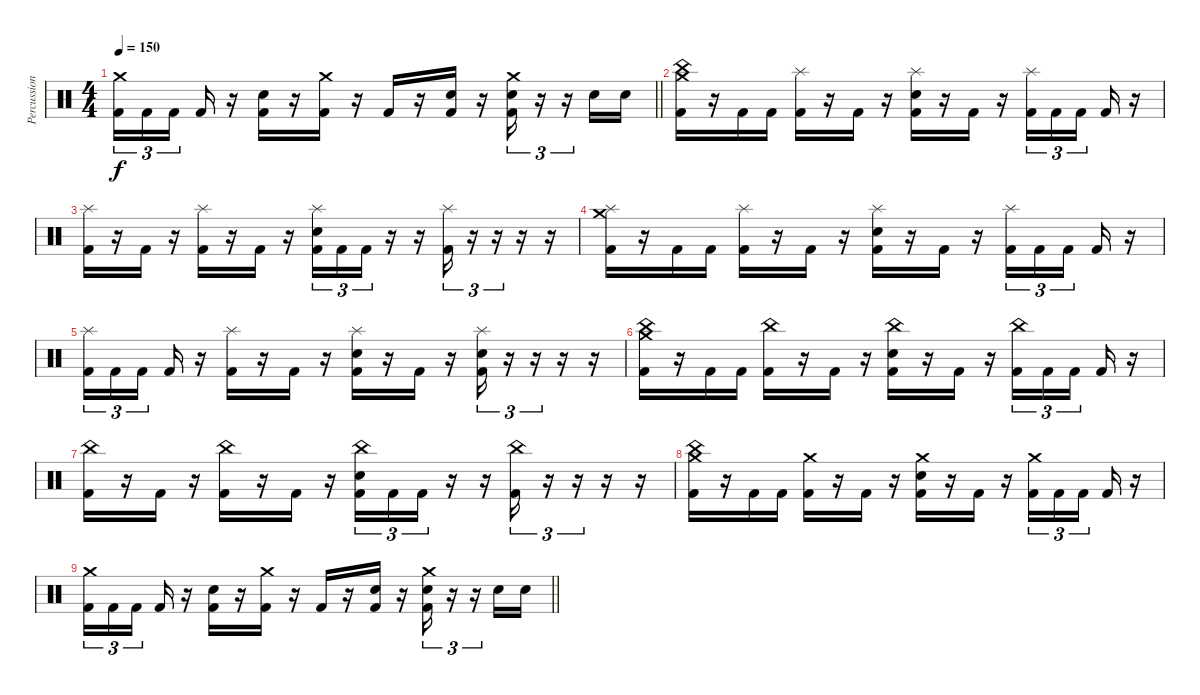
\track ("Percussion" "Percussion") {instrument percussion}
\staff {score}
\articulation defaults
\ts (4 4)
\tempo 150
\clef neutral
\barLineRight lightlight
\ks c
("Crash medium (hit)" "Kick (hit) 2").16{tu (3 2) dy f} "Kick (hit) 2".16{tu (3 2)} "Kick (hit) 2".16{tu (3 2) beam splitsecondary} "Kick (hit) 2".16 r.16 ("Electric Snare (hit)" "Kick (hit) 2").16 r.16 ("Crash medium (hit)" "Kick (hit) 2").16 r.16 "Kick (hit) 2".16 r.16 ("Electric Snare (hit)" "Kick (hit) 2").16 r.16 ("Crash medium (hit)" "Electric Snare (hit)" "Kick (hit) 2").16{tu (3 2)} r.16{tu (3 2)} r.16{tu (3 2)} "Electric Snare (hit)".16 "Electric Snare (hit)".16 |
("China (hit)" "Crash medium (hit)" "Kick (hit) 2").16 r.16 "Kick (hit) 2".16 "Kick (hit) 2".16 ("Splash (hit)" "Kick (hit) 2").16 r.16 "Kick (hit) 2".16 r.16 ("Splash (hit)" "Electric Snare (hit)" "Kick (hit) 2").16 r.16 "Kick (hit) 2".16 r.16 ("Splash (hit)" "Kick (hit) 2").16{tu (3 2)} "Kick (hit) 2".16{tu (3 2)} "Kick (hit) 2".16{tu (3 2) beam splitsecondary} "Kick (hit) 2".16 r.16 |
("Splash (hit)" "Kick (hit) 2").16 r.16 "Kick (hit) 2".16 r.16 ("Splash (hit)" "Kick (hit) 2").16 r.16 "Kick (hit) 2".16 r.16 ("Splash (hit)" "Electric Snare (hit)" "Kick (hit) 2").16{tu (3 2)} "Kick (hit) 2".16{tu (3 2)} "Kick (hit) 2".16{tu (3 2)} r.16 r.16 ("Splash (hit)" "Kick (hit) 2").16{tu (3 2)} r.16{tu (3 2)} r.16{tu (3 2)} r.16 r.16 |
("Splash (hit)" "Crash medium (hit)" "Kick (hit) 2").16 r.16 "Kick (hit) 2".16 "Kick (hit) 2".16 ("Splash (hit)" "Kick (hit) 2").16 r.16 "Kick (hit) 2".16 r.16 ("Splash (hit)" "Electric Snare (hit)" "Kick (hit) 2").16 r.16 "Kick (hit) 2".16 r.16 ("Splash (hit)" "Kick (hit) 2").16{tu (3 2)} "Kick (hit) 2".16{tu (3 2)} "Kick (hit) 2".16{tu (3 2) beam splitsecondary} "Kick (hit) 2".16 r.16 |
("Splash (hit)" "Kick (hit) 2").16{tu (3 2)} "Kick (hit) 2".16{tu (3 2)} "Kick (hit) 2".16{tu (3 2) beam splitsecondary} "Kick (hit) 2".16 r.16 ("Splash (hit)" "Kick (hit) 2").16 r.16 "Kick (hit) 2".16 r.16 ("Splash (hit)" "Electric Snare (hit)" "Kick (hit) 2").16 r.16 "Kick (hit) 2".16 r.16 ("Splash (hit)" "Electric Snare (hit)" "Kick (hit) 2").16{tu (3 2)} r.16{tu (3 2)} r.16{tu (3 2)} r.16 r.16 |
("China (hit)" "Crash medium (hit)" "Kick (hit) 2").16 r.16 "Kick (hit) 2".16 "Kick (hit) 2".16 ("China (hit)" "Kick (hit) 2").16 r.16 "Kick (hit) 2".16 r.16 ("China (hit)" "Electric Snare (hit)" "Kick (hit) 2").16 r.16 "Kick (hit) 2".16 r.16 ("China (hit)" "Kick (hit) 2").16{tu (3 2)} "Kick (hit) 2".16{tu (3 2)} "Kick (hit) 2".16{tu (3 2) beam splitsecondary} "Kick (hit) 2".16 r.16 |
("China (hit)" "Kick (hit) 2").16 r.16 "Kick (hit) 2".16 r.16 ("China (hit)" "Kick (hit) 2").16 r.16 "Kick (hit) 2".16 r.16 ("China (hit)" "Electric Snare (hit)" "Kick (hit) 2").16{tu (3 2)} "Kick (hit) 2".16{tu (3 2)} "Kick (hit) 2".16{tu (3 2)} r.16 r.16 ("China (hit)" "Kick (hit) 2").16{tu (3 2)} r.16{tu (3 2)} r.16{tu (3 2)} r.16 r.16 |
("China (hit)" "Crash medium (hit)" "Kick (hit) 2").16 r.16 "Kick (hit) 2".16 "Kick (hit) 2".16 ("Crash medium (hit)" "Kick (hit) 2").16 r.16 "Kick (hit) 2".16 r.16 ("Crash medium (hit)" "Electric Snare (hit)" "Kick (hit) 2").16 r.16 "Kick (hit) 2".16 r.16 ("Crash medium (hit)" "Kick (hit) 2").16{tu (3 2)} "Kick (hit) 2".16{tu (3 2)} "Kick (hit) 2".16{tu (3 2) beam splitsecondary} "Kick (hit) 2".16 r.16 |
\barLineRight lightlight
("Crash medium (hit)" "Kick (hit) 2").16{tu (3 2)} "Kick (hit) 2".16{tu (3 2)} "Kick (hit) 2".16{tu (3 2) beam splitsecondary} "Kick (hit) 2".16 r.16 ("Electric Snare (hit)" "Kick (hit) 2").16 r.16 ("Crash medium (hit)" "Kick (hit) 2").16 r.16 "Kick (hit) 2".16 r.16 ("Electric Snare (hit)" "Kick (hit) 2").16 r.16 ("Crash medium (hit)" "Electric Snare (hit)" "Kick (hit) 2").16{tu (3 2)} r.16{tu (3 2)} r.16{tu (3 2)} "Electric Snare (hit)".16 "Electric Snare (hit)".16
